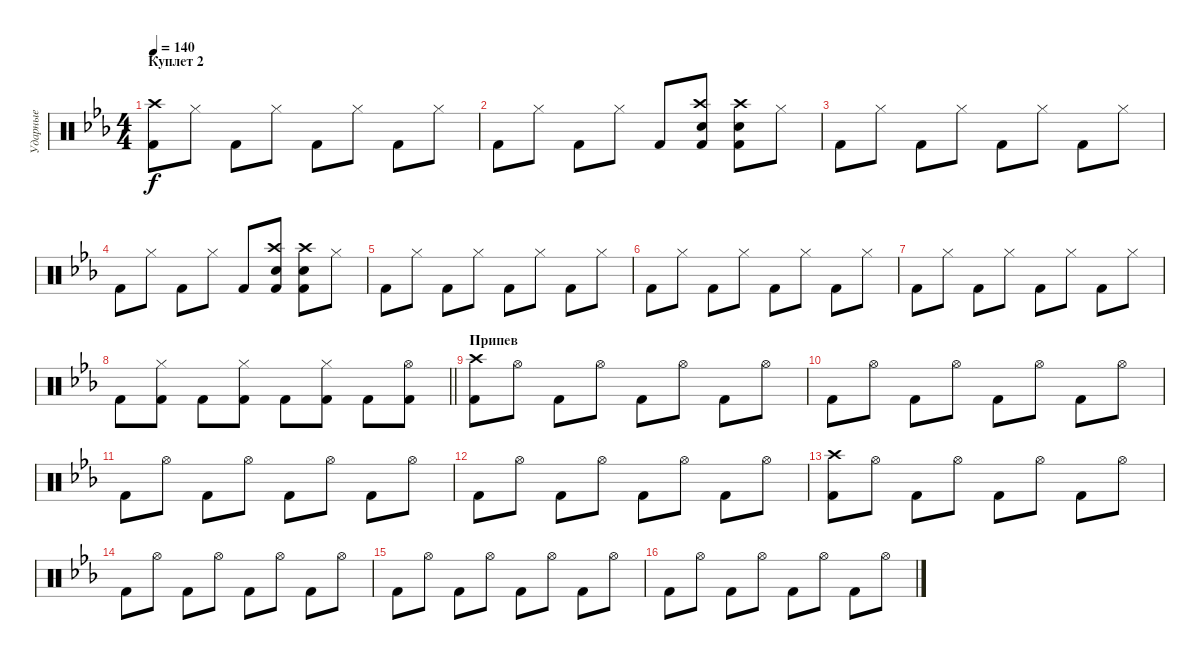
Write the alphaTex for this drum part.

\track ("Ударные" "Ударные") {instrument percussion}
\staff {score}
\articulation defaults
\ts (4 4)
\section ("" "Куплет 2")
\tempo 140
\clef neutral
\ks cminor
("Kick (hit) 2" "Crash high (hit)").8{dy f} "Hi-Hat (closed)".8 "Kick (hit) 2".8 "Hi-Hat (closed)".8 "Kick (hit) 2".8 "Hi-Hat (closed)".8 "Kick (hit) 2".8 "Hi-Hat (closed)".8 |
"Kick (hit) 2".8 "Hi-Hat (closed)".8 "Kick (hit) 2".8 "Hi-Hat (closed)".8 "Kick (hit) 2".8 ("Kick (hit) 2" "Crash high (hit)" "Snare (hit) 2").8 ("Kick (hit) 2" "Crash high (hit)" "Snare (hit) 2").8 "Hi-Hat (closed)".8 |
"Kick (hit) 2".8 "Hi-Hat (closed)".8 "Kick (hit) 2".8 "Hi-Hat (closed)".8 "Kick (hit) 2".8 "Hi-Hat (closed)".8 "Kick (hit) 2".8 "Hi-Hat (closed)".8 |
"Kick (hit) 2".8 "Hi-Hat (closed)".8 "Kick (hit) 2".8 "Hi-Hat (closed)".8 "Kick (hit) 2".8 ("Kick (hit) 2" "Crash high (hit)" "Snare (hit) 2").8 ("Kick (hit) 2" "Crash high (hit)" "Snare (hit) 2").8 "Hi-Hat (closed)".8 |
"Kick (hit) 2".8 "Hi-Hat (closed)".8 "Kick (hit) 2".8 "Hi-Hat (closed)".8 "Kick (hit) 2".8 "Hi-Hat (closed)".8 "Kick (hit) 2".8 "Hi-Hat (closed)".8 |
"Kick (hit) 2".8 "Hi-Hat (closed)".8 "Kick (hit) 2".8 "Hi-Hat (closed)".8 "Kick (hit) 2".8 "Hi-Hat (closed)".8 "Kick (hit) 2".8 "Hi-Hat (closed)".8 |
"Kick (hit) 2".8 "Hi-Hat (closed)".8 "Kick (hit) 2".8 "Hi-Hat (closed)".8 "Kick (hit) 2".8 "Hi-Hat (closed)".8 "Kick (hit) 2".8 "Hi-Hat (closed)".8 |
\barLineRight lightlight "Kick (hit) 2".8
("Hi-Hat (closed)" "Kick (hit) 2").8 "Kick (hit) 2".8 ("Hi-Hat (closed)" "Kick (hit) 2").8 "Kick (hit) 2".8 ("Hi-Hat (closed)" "Kick (hit) 2").8 "Kick (hit) 2".8 ("Hi-Hat (open)" "Kick (hit) 2").8 |
\section ("" "Припев")
("Kick (hit) 2" "Crash high (hit)").8 "Hi-Hat (open)".8 "Kick (hit) 2".8 "Hi-Hat (open)".8 "Kick (hit) 2".8 "Hi-Hat (open)".8 "Kick (hit) 2".8 "Hi-Hat (open)".8 |
"Kick (hit) 2".8 "Hi-Hat (open)".8 "Kick (hit) 2".8 "Hi-Hat (open)".8 "Kick (hit) 2".8 "Hi-Hat (open)".8 "Kick (hit) 2".8 "Hi-Hat (open)".8 |
"Kick (hit) 2".8 "Hi-Hat (open)".8 "Kick (hit) 2".8 "Hi-Hat (open)".8 "Kick (hit) 2".8 "Hi-Hat (open)".8 "Kick (hit) 2".8 "Hi-Hat (open)".8 |
"Kick (hit) 2".8 "Hi-Hat (open)".8 "Kick (hit) 2".8 "Hi-Hat (open)".8 "Kick (hit) 2".8 "Hi-Hat (open)".8 "Kick (hit) 2".8 "Hi-Hat (open)".8 |
("Kick (hit) 2" "Crash high (hit)").8 "Hi-Hat (open)".8 "Kick (hit) 2".8 "Hi-Hat (open)".8 "Kick (hit) 2".8 "Hi-Hat (open)".8 "Kick (hit) 2".8 "Hi-Hat (open)".8 |
"Kick (hit) 2".8 "Hi-Hat (open)".8 "Kick (hit) 2".8 "Hi-Hat (open)".8 "Kick (hit) 2".8 "Hi-Hat (open)".8 "Kick (hit) 2".8 "Hi-Hat (open)".8 |
"Kick (hit) 2".8 "Hi-Hat (open)".8 "Kick (hit) 2".8 "Hi-Hat (open)".8 "Kick (hit) 2".8 "Hi-Hat (open)".8 "Kick (hit) 2".8 "Hi-Hat (open)".8 |
"Kick (hit) 2".8 "Hi-Hat (open)".8 "Kick (hit) 2".8 "Hi-Hat (open)".8 "Kick (hit) 2".8 "Hi-Hat (open)".8 "Kick (hit) 2".8 "Hi-Hat (open)".8
